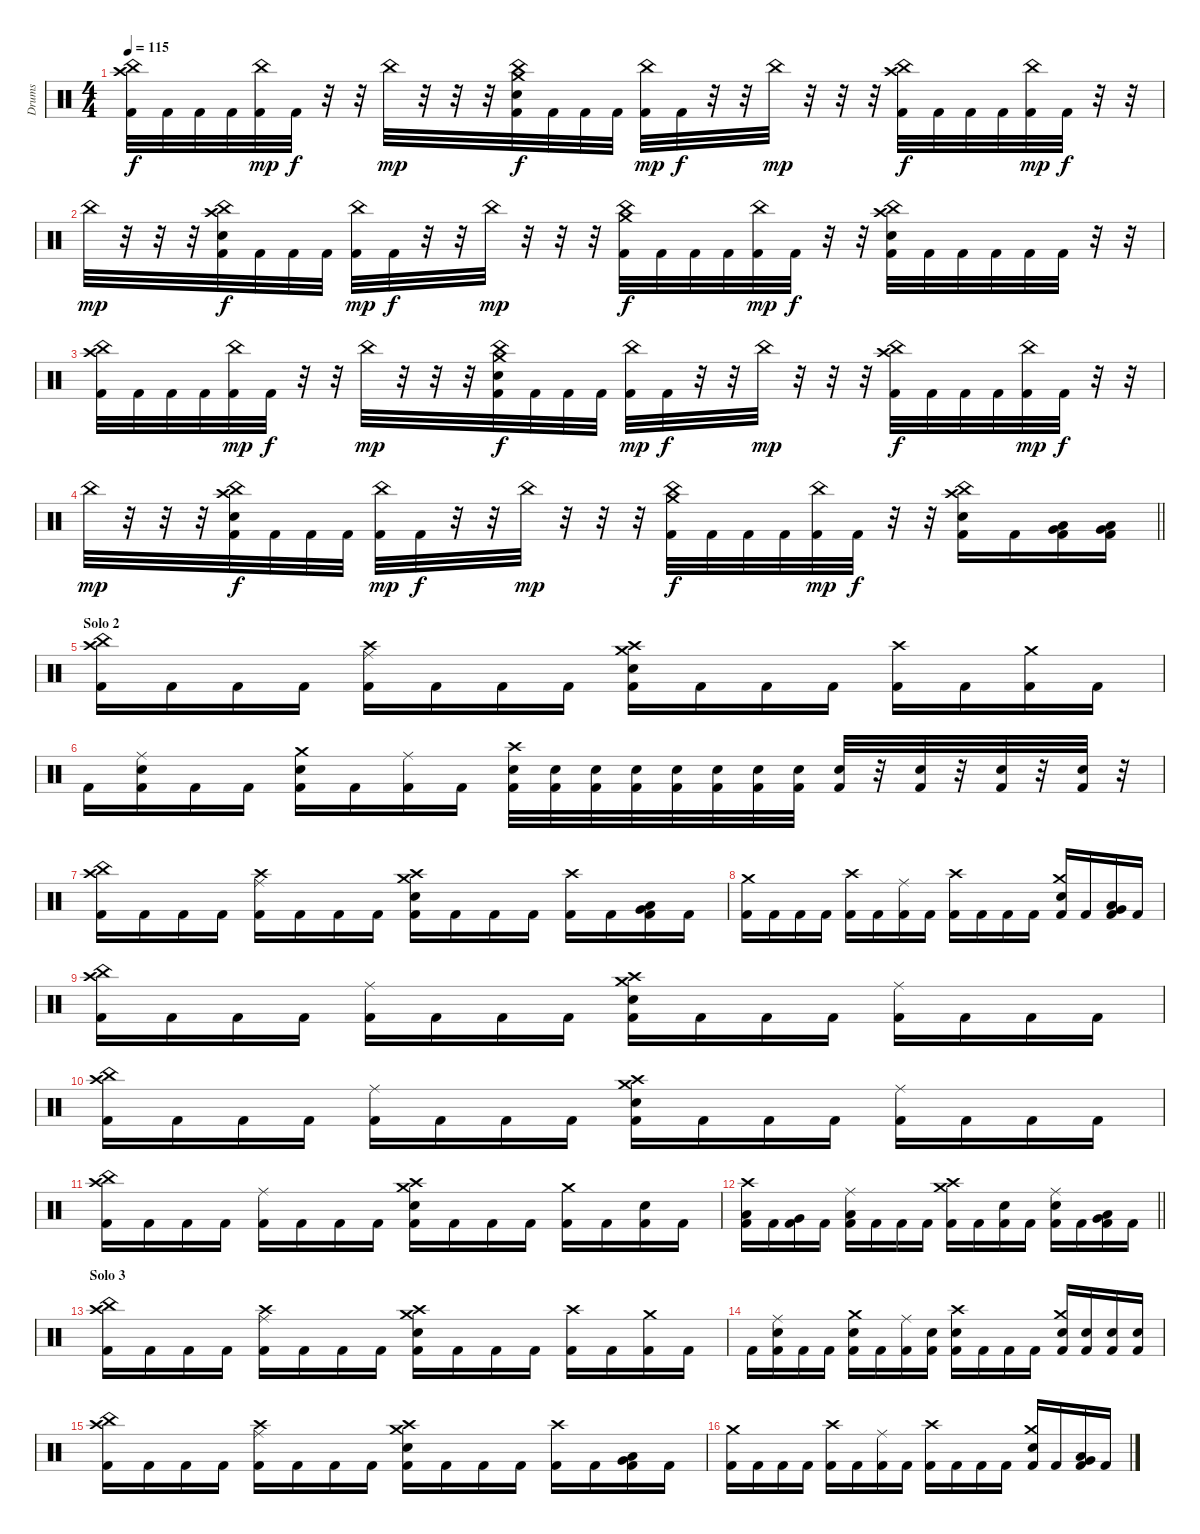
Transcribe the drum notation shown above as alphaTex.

\track ("Drums" "Drums") {instrument percussion}
\staff {score}
\articulation defaults
\ts (4 4)
\tempo 115
\clef neutral
\ks c
("China (hit)" "Crash high (hit)" "Kick (hit) 2").32{dy f} "Kick (hit) 2".32 "Kick (hit) 2".32 "Kick (hit) 2".32 ("China (hit)" "Kick (hit) 2").32{dy mp} "Kick (hit) 2".32{dy f} r.32 r.32 "China (hit)".32{dy mp} r.32 r.32 r.32 ("China (hit)" "Crash medium (hit)" "Electric Snare (hit)" "Kick (hit) 2").32{dy f} "Kick (hit) 2".32 "Kick (hit) 2".32 "Kick (hit) 2".32 ("China (hit)" "Kick (hit) 2").32{dy mp} "Kick (hit) 2".32{dy f} r.32 r.32 "China (hit)".32{dy mp} r.32 r.32 r.32 ("China (hit)" "Crash high (hit)" "Kick (hit) 2").32{dy f} "Kick (hit) 2".32 "Kick (hit) 2".32 "Kick (hit) 2".32 ("China (hit)" "Kick (hit) 2").32{dy mp} "Kick (hit) 2".32{dy f} r.32 r.32 |
"China (hit)".32{dy mp} r.32 r.32 r.32 ("China (hit)" "Crash high (hit)" "Electric Snare (hit)" "Kick (hit) 2").32{dy f} "Kick (hit) 2".32 "Kick (hit) 2".32 "Kick (hit) 2".32 ("China (hit)" "Kick (hit) 2").32{dy mp} "Kick (hit) 2".32{dy f} r.32 r.32 "China (hit)".32{dy mp} r.32 r.32 r.32 ("China (hit)" "Crash medium (hit)" "Kick (hit) 2").32{dy f} "Kick (hit) 2".32 "Kick (hit) 2".32 "Kick (hit) 2".32 ("China (hit)" "Kick (hit) 2").32{dy mp} "Kick (hit) 2".32{dy f} r.32 r.32 ("China (hit)" "Crash high (hit)" "Electric Snare (hit)" "Kick (hit) 2").32 "Kick (hit) 2".32 "Kick (hit) 2".32 "Kick (hit) 2".32 "Kick (hit) 2".32 "Kick (hit) 2".32 r.32 r.32 |
("China (hit)" "Crash high (hit)" "Kick (hit) 2").32 "Kick (hit) 2".32 "Kick (hit) 2".32 "Kick (hit) 2".32 ("China (hit)" "Kick (hit) 2").32{dy mp} "Kick (hit) 2".32{dy f} r.32 r.32 "China (hit)".32{dy mp} r.32 r.32 r.32 ("China (hit)" "Crash medium (hit)" "Electric Snare (hit)" "Kick (hit) 2").32{dy f} "Kick (hit) 2".32 "Kick (hit) 2".32 "Kick (hit) 2".32 ("China (hit)" "Kick (hit) 2").32{dy mp} "Kick (hit) 2".32{dy f} r.32 r.32 "China (hit)".32{dy mp} r.32 r.32 r.32 ("China (hit)" "Crash high (hit)" "Kick (hit) 2").32{dy f} "Kick (hit) 2".32 "Kick (hit) 2".32 "Kick (hit) 2".32 ("China (hit)" "Kick (hit) 2").32{dy mp} "Kick (hit) 2".32{dy f} r.32 r.32 |
\barLineRight lightlight "China (hit)".32{dy mp}
r.32 r.32 r.32 ("China (hit)" "Crash high (hit)" "Electric Snare (hit)" "Kick (hit) 2").32{dy f} "Kick (hit) 2".32 "Kick (hit) 2".32 "Kick (hit) 2".32 ("China (hit)" "Kick (hit) 2").32{dy mp} "Kick (hit) 2".32{dy f} r.32 r.32 "China (hit)".32{dy mp} r.32 r.32 r.32 ("China (hit)" "Crash medium (hit)" "Kick (hit) 2").32{dy f} "Kick (hit) 2".32 "Kick (hit) 2".32 "Kick (hit) 2".32 ("China (hit)" "Kick (hit) 2").32{dy mp} "Kick (hit) 2".32{dy f} r.32 r.32 ("China (hit)" "Crash high (hit)" "Electric Snare (hit)" "Kick (hit) 2").16 "Kick (hit) 2".16 ("Very Low Tom (hit)" "Low Tom (hit)" "Kick (hit) 2").16 ("Low Floor Tom (hit)" "Very Low Tom (hit)" "Kick (hit) 2").16 |
\section ("" "Solo 2")
("China (hit)" "Crash high (hit)" "Kick (hit) 2").16 "Kick (hit) 2".16 "Kick (hit) 2".16 "Kick (hit) 2".16 ("Ride (middle)" "Crash high (hit)" "Kick (hit) 2").16 "Kick (hit) 2".16 "Kick (hit) 2".16 "Kick (hit) 2".16 ("Crash high (hit)" "Crash medium (hit)" "Electric Snare (hit)" "Kick (hit) 2").16 "Kick (hit) 2".16 "Kick (hit) 2".16 "Kick (hit) 2".16 ("Crash high (hit)" "Kick (hit) 2").16 "Kick (hit) 2".16 ("Crash medium (hit)" "Kick (hit) 2").16 "Kick (hit) 2".16 |
"Kick (hit) 2".16 ("Ride (middle)" "Electric Snare (hit)" "Kick (hit) 2").16 "Kick (hit) 2".16 "Kick (hit) 2".16 ("Crash medium (hit)" "Electric Snare (hit)" "Kick (hit) 2").16 "Kick (hit) 2".16 ("Ride (middle)" "Kick (hit) 2").16 "Kick (hit) 2".16 ("Crash high (hit)" "Electric Snare (hit)" "Kick (hit) 2").32 ("Electric Snare (hit)" "Kick (hit) 2").32 ("Electric Snare (hit)" "Kick (hit) 2").32 ("Electric Snare (hit)" "Kick (hit) 2").32 ("Electric Snare (hit)" "Kick (hit) 2").32 ("Electric Snare (hit)" "Kick (hit) 2").32 ("Electric Snare (hit)" "Kick (hit) 2").32 ("Electric Snare (hit)" "Kick (hit) 2").32 ("Electric Snare (hit)" "Kick (hit) 2").32 r.32 ("Electric Snare (hit)" "Kick (hit) 2").32 r.32 ("Electric Snare (hit)" "Kick (hit) 2").32 r.32 ("Electric Snare (hit)" "Kick (hit) 2").32 r.32 |
("China (hit)" "Crash high (hit)" "Kick (hit) 2").16 "Kick (hit) 2".16 "Kick (hit) 2".16 "Kick (hit) 2".16 ("Ride (middle)" "Crash high (hit)" "Kick (hit) 2").16 "Kick (hit) 2".16 "Kick (hit) 2".16 "Kick (hit) 2".16 ("Crash high (hit)" "Crash medium (hit)" "Electric Snare (hit)" "Kick (hit) 2").16 "Kick (hit) 2".16 "Kick (hit) 2".16 "Kick (hit) 2".16 ("Crash high (hit)" "Kick (hit) 2").16 "Kick (hit) 2".16 ("Low Floor Tom (hit)" "Very Low Tom (hit)" "Kick (hit) 2").16 "Kick (hit) 2".16 |
("Crash medium (hit)" "Kick (hit) 2").16 "Kick (hit) 2".16 "Kick (hit) 2".16 "Kick (hit) 2".16 ("Crash high (hit)" "Kick (hit) 2").16 "Kick (hit) 2".16 ("Ride (middle)" "Kick (hit) 2").16 "Kick (hit) 2".16 ("Crash high (hit)" "Kick (hit) 2").16 "Kick (hit) 2".16 "Kick (hit) 2".16 "Kick (hit) 2".16 ("Crash medium (hit)" "Electric Snare (hit)" "Kick (hit) 2").16 "Kick (hit) 2".16 ("Very Low Tom (hit)" "Low Tom (hit)" "Kick (hit) 2").16 "Kick (hit) 2".16 |
("China (hit)" "Crash high (hit)" "Kick (hit) 2").16 "Kick (hit) 2".16 "Kick (hit) 2".16 "Kick (hit) 2".16 ("Ride (middle)" "Kick (hit) 2").16 "Kick (hit) 2".16 "Kick (hit) 2".16 "Kick (hit) 2".16 ("Crash high (hit)" "Crash medium (hit)" "Electric Snare (hit)" "Kick (hit) 2").16 "Kick (hit) 2".16 "Kick (hit) 2".16 "Kick (hit) 2".16 ("Ride (middle)" "Kick (hit) 2").16 "Kick (hit) 2".16 "Kick (hit) 2".16 "Kick (hit) 2".16 |
("China (hit)" "Crash high (hit)" "Kick (hit) 2").16 "Kick (hit) 2".16 "Kick (hit) 2".16 "Kick (hit) 2".16 ("Ride (middle)" "Kick (hit) 2").16 "Kick (hit) 2".16 "Kick (hit) 2".16 "Kick (hit) 2".16 ("Crash high (hit)" "Crash medium (hit)" "Electric Snare (hit)" "Kick (hit) 2").16 "Kick (hit) 2".16 "Kick (hit) 2".16 "Kick (hit) 2".16 ("Ride (middle)" "Kick (hit) 2").16 "Kick (hit) 2".16 "Kick (hit) 2".16 "Kick (hit) 2".16 |
("China (hit)" "Crash high (hit)" "Kick (hit) 2").16 "Kick (hit) 2".16 "Kick (hit) 2".16 "Kick (hit) 2".16 ("Ride (middle)" "Kick (hit) 2").16 "Kick (hit) 2".16 "Kick (hit) 2".16 "Kick (hit) 2".16 ("Crash high (hit)" "Crash medium (hit)" "Electric Snare (hit)" "Kick (hit) 2").16 "Kick (hit) 2".16 "Kick (hit) 2".16 "Kick (hit) 2".16 ("Crash medium (hit)" "Kick (hit) 2").16 "Kick (hit) 2".16 ("Electric Snare (hit)" "Kick (hit) 2").16 "Kick (hit) 2".16 |
\barLineRight lightlight
("Crash high (hit)" "Low Tom (hit)" "Kick (hit) 2").16 "Kick (hit) 2".16 ("Very Low Tom (hit)" "Kick (hit) 2").16 "Kick (hit) 2".16 ("Ride (middle)" "Low Floor Tom (hit)" "Kick (hit) 2").16 "Kick (hit) 2".16 "Kick (hit) 2".16 "Kick (hit) 2".16 ("Crash high (hit)" "Crash medium (hit)" "Kick (hit) 2").16 "Kick (hit) 2".16 ("Electric Snare (hit)" "Kick (hit) 2").16 "Kick (hit) 2".16 ("Ride (middle)" "Electric Snare (hit)" "Kick (hit) 2").16 "Kick (hit) 2".16 ("Very Low Tom (hit)" "Low Tom (hit)" "Kick (hit) 2").16 "Kick (hit) 2".16 |
\section ("" "Solo 3")
("China (hit)" "Crash high (hit)" "Kick (hit) 2").16 "Kick (hit) 2".16 "Kick (hit) 2".16 "Kick (hit) 2".16 ("Ride (middle)" "Crash high (hit)" "Kick (hit) 2").16 "Kick (hit) 2".16 "Kick (hit) 2".16 "Kick (hit) 2".16 ("Crash high (hit)" "Crash medium (hit)" "Electric Snare (hit)" "Kick (hit) 2").16 "Kick (hit) 2".16 "Kick (hit) 2".16 "Kick (hit) 2".16 ("Crash high (hit)" "Kick (hit) 2").16 "Kick (hit) 2".16 ("Crash medium (hit)" "Kick (hit) 2").16 "Kick (hit) 2".16 |
"Kick (hit) 2".16 ("Ride (middle)" "Electric Snare (hit)" "Kick (hit) 2").16 "Kick (hit) 2".16 "Kick (hit) 2".16 ("Crash medium (hit)" "Electric Snare (hit)" "Kick (hit) 2").16 "Kick (hit) 2".16 ("Ride (middle)" "Kick (hit) 2").16 ("Electric Snare (hit)" "Kick (hit) 2").16 ("Crash high (hit)" "Electric Snare (hit)" "Kick (hit) 2").16 "Kick (hit) 2".16 "Kick (hit) 2".16 "Kick (hit) 2".16 ("Crash medium (hit)" "Electric Snare (hit)" "Kick (hit) 2").16 ("Electric Snare (hit)" "Kick (hit) 2").16 ("Electric Snare (hit)" "Kick (hit) 2").16 ("Electric Snare (hit)" "Kick (hit) 2").16 |
("China (hit)" "Crash high (hit)" "Kick (hit) 2").16 "Kick (hit) 2".16 "Kick (hit) 2".16 "Kick (hit) 2".16 ("Ride (middle)" "Crash high (hit)" "Kick (hit) 2").16 "Kick (hit) 2".16 "Kick (hit) 2".16 "Kick (hit) 2".16 ("Crash high (hit)" "Crash medium (hit)" "Electric Snare (hit)" "Kick (hit) 2").16 "Kick (hit) 2".16 "Kick (hit) 2".16 "Kick (hit) 2".16 ("Crash high (hit)" "Kick (hit) 2").16 "Kick (hit) 2".16 ("Low Floor Tom (hit)" "Very Low Tom (hit)" "Kick (hit) 2").16 "Kick (hit) 2".16 |
("Crash medium (hit)" "Kick (hit) 2").16 "Kick (hit) 2".16 "Kick (hit) 2".16 "Kick (hit) 2".16 ("Crash high (hit)" "Kick (hit) 2").16 "Kick (hit) 2".16 ("Ride (middle)" "Kick (hit) 2").16 "Kick (hit) 2".16 ("Crash high (hit)" "Kick (hit) 2").16 "Kick (hit) 2".16 "Kick (hit) 2".16 "Kick (hit) 2".16 ("Crash medium (hit)" "Electric Snare (hit)" "Kick (hit) 2").16 "Kick (hit) 2".16 ("Very Low Tom (hit)" "Low Tom (hit)" "Kick (hit) 2").16 "Kick (hit) 2".16
